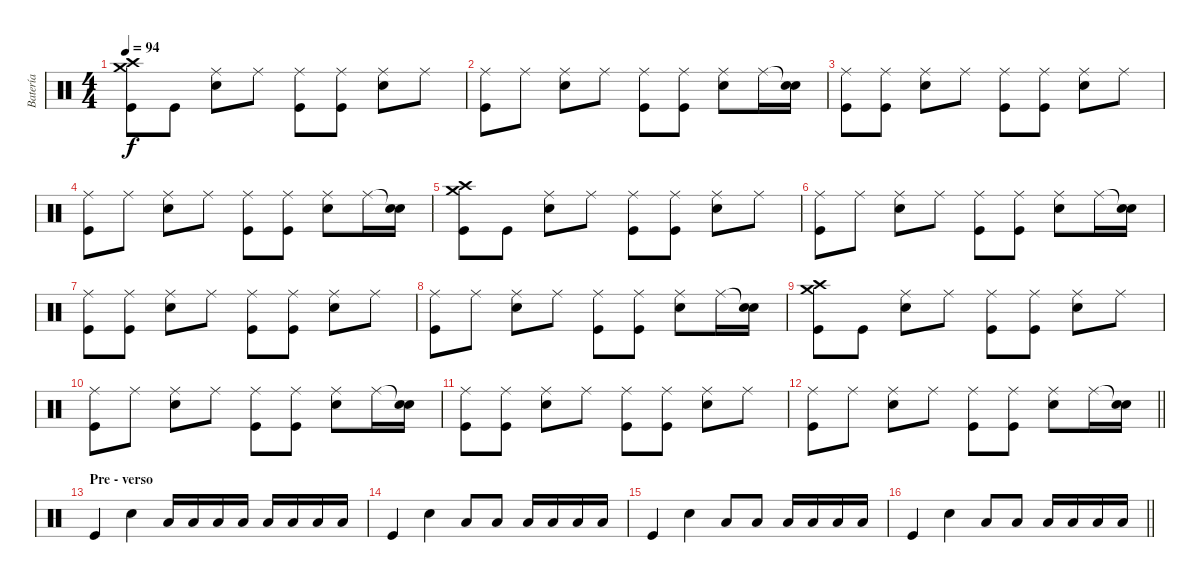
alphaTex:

\track ("Batería" "Batería") {instrument percussion}
\staff {score}
\articulation defaults
\ts (4 4)
\tempo 94
\clef neutral
\ks c
("Crash medium (hit)" "Crash high (hit)" "Kick (hit)").8{dy f} "Kick (hit)".8 ("Ride (middle)" "Snare (hit) 2").8 "Ride (middle)".8 ("Ride (middle)" "Kick (hit)").8 ("Ride (middle)" "Kick (hit)").8 ("Ride (middle)" "Snare (hit) 2").8 "Ride (middle)".8 |
("Ride (middle)" "Kick (hit)").8 "Ride (middle)".8 ("Ride (middle)" "Snare (hit) 2").8 "Ride (middle)".8 ("Ride (middle)" "Kick (hit)").8 ("Ride (middle)" "Kick (hit)").8 ("Ride (middle)" "Snare (hit) 2").8 "Ride (middle)".16 ("Snare (hit)"{t} "Snare (hit) 2").16 |
("Ride (middle)" "Kick (hit)").8 ("Ride (middle)" "Kick (hit)").8 ("Ride (middle)" "Snare (hit) 2").8 "Ride (middle)".8 ("Ride (middle)" "Kick (hit)").8 ("Ride (middle)" "Kick (hit)").8 ("Ride (middle)" "Snare (hit) 2").8 "Ride (middle)".8 |
("Ride (middle)" "Kick (hit)").8 "Ride (middle)".8 ("Ride (middle)" "Snare (hit) 2").8 "Ride (middle)".8 ("Ride (middle)" "Kick (hit)").8 ("Ride (middle)" "Kick (hit)").8 ("Ride (middle)" "Snare (hit) 2").8 "Ride (middle)".16 ("Snare (hit)"{t} "Snare (hit) 2").16 |
("Crash medium (hit)" "Crash high (hit)" "Kick (hit)").8 "Kick (hit)".8 ("Ride (middle)" "Snare (hit) 2").8 "Ride (middle)".8 ("Ride (middle)" "Kick (hit)").8 ("Ride (middle)" "Kick (hit)").8 ("Ride (middle)" "Snare (hit) 2").8 "Ride (middle)".8 |
("Ride (middle)" "Kick (hit)").8 "Ride (middle)".8 ("Ride (middle)" "Snare (hit) 2").8 "Ride (middle)".8 ("Ride (middle)" "Kick (hit)").8 ("Ride (middle)" "Kick (hit)").8 ("Ride (middle)" "Snare (hit) 2").8 "Ride (middle)".16 ("Snare (hit)"{t} "Snare (hit) 2").16 |
("Ride (middle)" "Kick (hit)").8 ("Ride (middle)" "Kick (hit)").8 ("Ride (middle)" "Snare (hit) 2").8 "Ride (middle)".8 ("Ride (middle)" "Kick (hit)").8 ("Ride (middle)" "Kick (hit)").8 ("Ride (middle)" "Snare (hit) 2").8 "Ride (middle)".8 |
("Ride (middle)" "Kick (hit)").8 "Ride (middle)".8 ("Ride (middle)" "Snare (hit) 2").8 "Ride (middle)".8 ("Ride (middle)" "Kick (hit)").8 ("Ride (middle)" "Kick (hit)").8 ("Ride (middle)" "Snare (hit) 2").8 "Ride (middle)".16 ("Snare (hit)"{t} "Snare (hit) 2").16 |
("Crash medium (hit)" "Crash high (hit)" "Kick (hit)").8 "Kick (hit)".8 ("Ride (middle)" "Snare (hit) 2").8 "Ride (middle)".8 ("Ride (middle)" "Kick (hit)").8 ("Ride (middle)" "Kick (hit)").8 ("Ride (middle)" "Snare (hit) 2").8 "Ride (middle)".8 |
("Ride (middle)" "Kick (hit)").8 "Ride (middle)".8 ("Ride (middle)" "Snare (hit) 2").8 "Ride (middle)".8 ("Ride (middle)" "Kick (hit)").8 ("Ride (middle)" "Kick (hit)").8 ("Ride (middle)" "Snare (hit) 2").8 "Ride (middle)".16 ("Snare (hit)"{t} "Snare (hit) 2").16 |
("Ride (middle)" "Kick (hit)").8 ("Ride (middle)" "Kick (hit)").8 ("Ride (middle)" "Snare (hit) 2").8 "Ride (middle)".8 ("Ride (middle)" "Kick (hit)").8 ("Ride (middle)" "Kick (hit)").8 ("Ride (middle)" "Snare (hit) 2").8 "Ride (middle)".8 |
\barLineRight lightlight
("Ride (middle)" "Kick (hit)").8 "Ride (middle)".8 ("Ride (middle)" "Snare (hit) 2").8 "Ride (middle)".8 ("Ride (middle)" "Kick (hit)").8 ("Ride (middle)" "Kick (hit)").8 ("Ride (middle)" "Snare (hit) 2").8 "Ride (middle)".16 ("Snare (hit)"{t} "Snare (hit) 2").16 |
\section ("" "Pre - verso")
"Kick (hit)".4 "Snare (hit) 2".4 "Low Floor Tom (hit)".16 "Low Floor Tom (hit)".16 "Low Floor Tom (hit)".16 "Low Floor Tom (hit)".16 "Low Floor Tom (hit)".16 "Low Floor Tom (hit)".16 "Low Tom (hit)".16 "Low Tom (hit)".16 |
"Kick (hit)".4 "Snare (hit) 2".4 "Low Floor Tom (hit)".8 "Low Floor Tom (hit)".8 "Low Floor Tom (hit)".16 "Low Floor Tom (hit)".16 "Low Tom (hit)".16 "Low Tom (hit)".16 |
"Kick (hit)".4 "Snare (hit) 2".4 "Low Floor Tom (hit)".8 "Low Floor Tom (hit)".8 "Low Floor Tom (hit)".16 "Low Floor Tom (hit)".16 "Low Tom (hit)".16 "Low Tom (hit)".16 |
\barLineRight lightlight "Kick (hit)".4 "Snare (hit) 2".4 "Low Floor Tom (hit)".8 "Low Floor Tom (hit)".8 "Low Floor Tom (hit)".16 "Low Floor Tom (hit)".16 "Low Tom (hit)".16 "Low Tom (hit)".16
